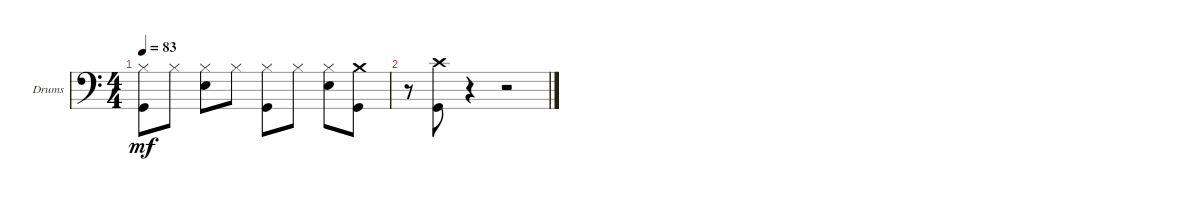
\bracketExtendMode groupsimilarinstruments
\firstSystemTrackNameOrientation horizontal
\otherSystemsTrackNameOrientation horizontal
\track ("Drums" "Drums") {instrument percussion}
\staff {score}
\articulation defaults
\ts (4 4)
\tempo 83
\clef f4
\scale
0.333333
\ks c
("Hi-Hat (closed)" "Kick (hit)").8{dy mf} "Hi-Hat (closed)".8 ("Hi-Hat (closed)" "Snare (hit) 2").8 "Hi-Hat (closed)".8 ("Hi-Hat (closed)" "Kick (hit)").8 "Hi-Hat (closed)".8 ("Hi-Hat (closed)" "Snare (hit) 2").8 ("Kick (hit)" "Crash medium (hit)").8 |
\scale
0.333333 r.8 ("Crash high (hit)" "Kick (hit)").8 r.4 r.2 |
\scale
0.333333 |
\scale
0.333333
